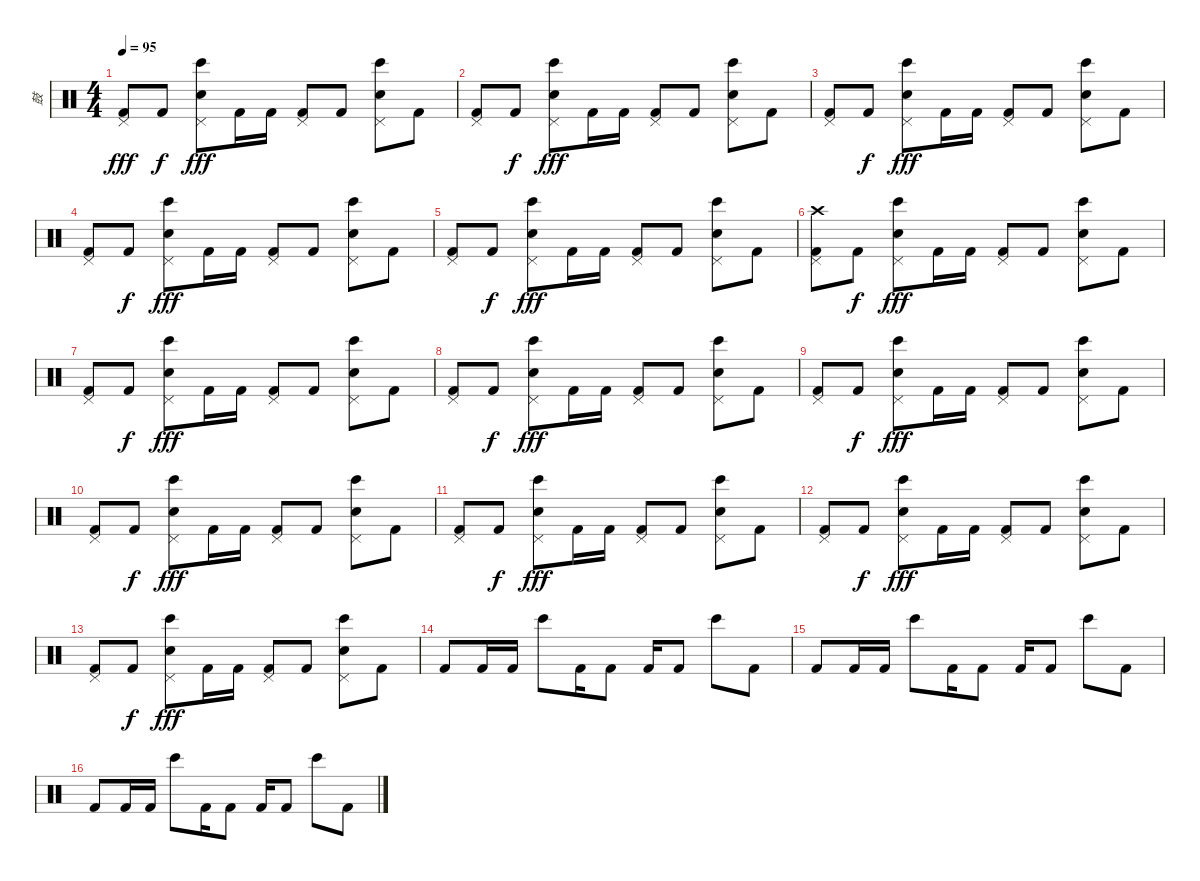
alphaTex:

\track ("鼓" "鼓") {instrument percussion}
\staff {score}
\articulation defaults
\ts (4 4)
\tempo 95
\clef neutral
\ks c
("Pedal Hi-Hat (hit)" "Kick (hit) 2").8{dy fff} "Kick (hit) 2".8{dy f} ("Pedal Hi-Hat (hit)" "Electric Snare (hit)" "Bongo High (hit)").8{dy fff} "Kick (hit) 2".16 "Kick (hit) 2".16 ("Pedal Hi-Hat (hit)" "Kick (hit) 2").8 "Kick (hit) 2".8 ("Pedal Hi-Hat (hit)" "Electric Snare (hit)" "Bongo High (hit)").8 "Kick (hit) 2".8 |
("Pedal Hi-Hat (hit)" "Kick (hit) 2").8 "Kick (hit) 2".8{dy f} ("Pedal Hi-Hat (hit)" "Electric Snare (hit)" "Bongo High (hit)").8{dy fff} "Kick (hit) 2".16 "Kick (hit) 2".16 ("Pedal Hi-Hat (hit)" "Kick (hit) 2").8 "Kick (hit) 2".8 ("Pedal Hi-Hat (hit)" "Electric Snare (hit)" "Bongo High (hit)").8 "Kick (hit) 2".8 |
("Pedal Hi-Hat (hit)" "Kick (hit) 2").8 "Kick (hit) 2".8{dy f} ("Pedal Hi-Hat (hit)" "Electric Snare (hit)" "Bongo High (hit)").8{dy fff} "Kick (hit) 2".16 "Kick (hit) 2".16 ("Pedal Hi-Hat (hit)" "Kick (hit) 2").8 "Kick (hit) 2".8 ("Pedal Hi-Hat (hit)" "Electric Snare (hit)" "Bongo High (hit)").8 "Kick (hit) 2".8 |
("Pedal Hi-Hat (hit)" "Kick (hit) 2").8 "Kick (hit) 2".8{dy f} ("Pedal Hi-Hat (hit)" "Electric Snare (hit)" "Bongo High (hit)").8{dy fff} "Kick (hit) 2".16 "Kick (hit) 2".16 ("Pedal Hi-Hat (hit)" "Kick (hit) 2").8 "Kick (hit) 2".8 ("Pedal Hi-Hat (hit)" "Electric Snare (hit)" "Bongo High (hit)").8 "Kick (hit) 2".8 |
("Pedal Hi-Hat (hit)" "Kick (hit) 2").8 "Kick (hit) 2".8{dy f} ("Pedal Hi-Hat (hit)" "Electric Snare (hit)" "Bongo High (hit)").8{dy fff} "Kick (hit) 2".16 "Kick (hit) 2".16 ("Pedal Hi-Hat (hit)" "Kick (hit) 2").8 "Kick (hit) 2".8 ("Pedal Hi-Hat (hit)" "Electric Snare (hit)" "Bongo High (hit)").8 "Kick (hit) 2".8 |
("Pedal Hi-Hat (hit)" "Kick (hit) 2" "Crash high (hit)").8 "Kick (hit) 2".8{dy f} ("Pedal Hi-Hat (hit)" "Electric Snare (hit)" "Bongo High (hit)").8{dy fff} "Kick (hit) 2".16 "Kick (hit) 2".16 ("Pedal Hi-Hat (hit)" "Kick (hit) 2").8 "Kick (hit) 2".8 ("Pedal Hi-Hat (hit)" "Electric Snare (hit)" "Bongo High (hit)").8 "Kick (hit) 2".8 |
("Pedal Hi-Hat (hit)" "Kick (hit) 2").8 "Kick (hit) 2".8{dy f} ("Pedal Hi-Hat (hit)" "Electric Snare (hit)" "Bongo High (hit)").8{dy fff} "Kick (hit) 2".16 "Kick (hit) 2".16 ("Pedal Hi-Hat (hit)" "Kick (hit) 2").8 "Kick (hit) 2".8 ("Pedal Hi-Hat (hit)" "Electric Snare (hit)" "Bongo High (hit)").8 "Kick (hit) 2".8 |
("Pedal Hi-Hat (hit)" "Kick (hit) 2").8 "Kick (hit) 2".8{dy f} ("Pedal Hi-Hat (hit)" "Electric Snare (hit)" "Bongo High (hit)").8{dy fff} "Kick (hit) 2".16 "Kick (hit) 2".16 ("Pedal Hi-Hat (hit)" "Kick (hit) 2").8 "Kick (hit) 2".8 ("Pedal Hi-Hat (hit)" "Electric Snare (hit)" "Bongo High (hit)").8 "Kick (hit) 2".8 |
("Pedal Hi-Hat (hit)" "Kick (hit) 2").8 "Kick (hit) 2".8{dy f} ("Pedal Hi-Hat (hit)" "Electric Snare (hit)" "Bongo High (hit)").8{dy fff} "Kick (hit) 2".16 "Kick (hit) 2".16 ("Pedal Hi-Hat (hit)" "Kick (hit) 2").8 "Kick (hit) 2".8 ("Pedal Hi-Hat (hit)" "Electric Snare (hit)" "Bongo High (hit)").8 "Kick (hit) 2".8 |
("Pedal Hi-Hat (hit)" "Kick (hit) 2").8 "Kick (hit) 2".8{dy f} ("Pedal Hi-Hat (hit)" "Electric Snare (hit)" "Bongo High (hit)").8{dy fff} "Kick (hit) 2".16 "Kick (hit) 2".16 ("Pedal Hi-Hat (hit)" "Kick (hit) 2").8 "Kick (hit) 2".8 ("Pedal Hi-Hat (hit)" "Electric Snare (hit)" "Bongo High (hit)").8 "Kick (hit) 2".8 |
("Pedal Hi-Hat (hit)" "Kick (hit) 2").8 "Kick (hit) 2".8{dy f} ("Pedal Hi-Hat (hit)" "Electric Snare (hit)" "Bongo High (hit)").8{dy fff} "Kick (hit) 2".16 "Kick (hit) 2".16 ("Pedal Hi-Hat (hit)" "Kick (hit) 2").8 "Kick (hit) 2".8 ("Pedal Hi-Hat (hit)" "Electric Snare (hit)" "Bongo High (hit)").8 "Kick (hit) 2".8 |
("Pedal Hi-Hat (hit)" "Kick (hit) 2").8 "Kick (hit) 2".8{dy f} ("Pedal Hi-Hat (hit)" "Electric Snare (hit)" "Bongo High (hit)").8{dy fff} "Kick (hit) 2".16 "Kick (hit) 2".16 ("Pedal Hi-Hat (hit)" "Kick (hit) 2").8 "Kick (hit) 2".8 ("Pedal Hi-Hat (hit)" "Electric Snare (hit)" "Bongo High (hit)").8 "Kick (hit) 2".8 |
("Pedal Hi-Hat (hit)" "Kick (hit) 2").8 "Kick (hit) 2".8{dy f} ("Pedal Hi-Hat (hit)" "Electric Snare (hit)" "Bongo High (hit)").8{dy fff} "Kick (hit) 2".16 "Kick (hit) 2".16 ("Pedal Hi-Hat (hit)" "Kick (hit) 2").8 "Kick (hit) 2".8 ("Pedal Hi-Hat (hit)" "Electric Snare (hit)" "Bongo High (hit)").8 "Kick (hit) 2".8 |
"Kick (hit) 2".8 "Kick (hit) 2".16 "Kick (hit) 2".16 "Bongo High (hit)".8 "Kick (hit) 2".16 "Kick (hit) 2".8 "Kick (hit) 2".16 "Kick (hit) 2".8 "Bongo High (hit)".8 "Kick (hit) 2".8 |
"Kick (hit) 2".8 "Kick (hit) 2".16 "Kick (hit) 2".16 "Bongo High (hit)".8 "Kick (hit) 2".16 "Kick (hit) 2".8 "Kick (hit) 2".16 "Kick (hit) 2".8 "Bongo High (hit)".8 "Kick (hit) 2".8 |
"Kick (hit) 2".8 "Kick (hit) 2".16 "Kick (hit) 2".16 "Bongo High (hit)".8 "Kick (hit) 2".16 "Kick (hit) 2".8 "Kick (hit) 2".16 "Kick (hit) 2".8 "Bongo High (hit)".8 "Kick (hit) 2".8
